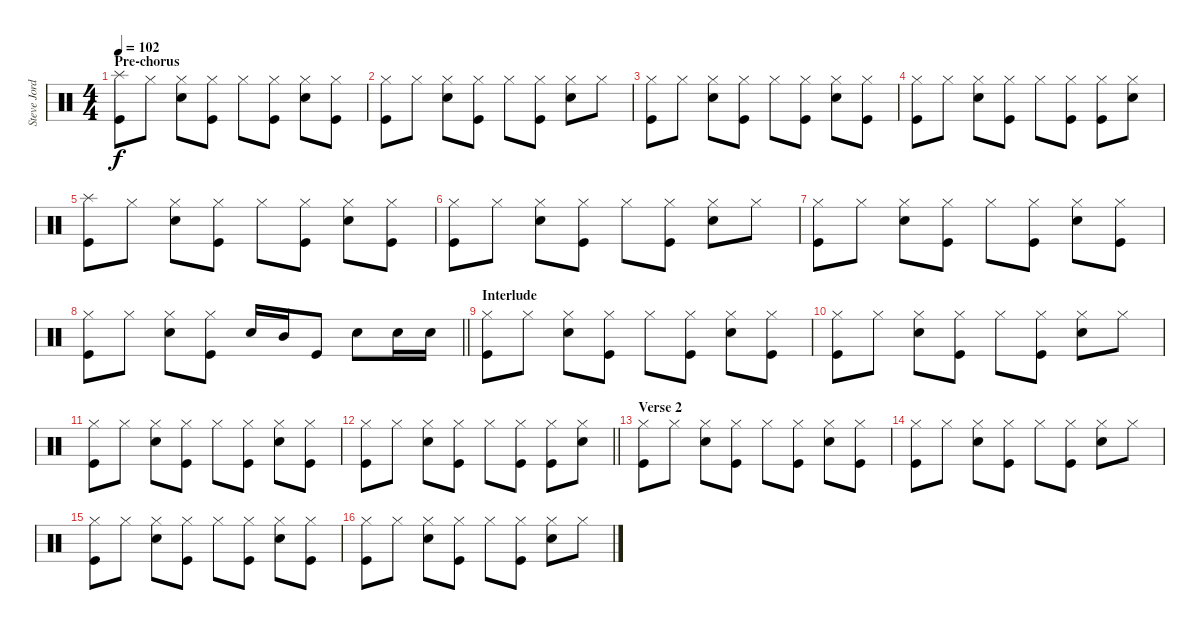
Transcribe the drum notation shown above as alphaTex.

\track ("Steve Jordan (Drums)" "Steve Jord") {instrument percussion}
\staff {score}
\articulation defaults
\ts (4 4)
\section ("" "Pre-chorus")
\tempo 102
\clef neutral
\ks c
("Splash (hit)" "Kick (hit)").8{dy f} "Hi-Hat (closed)".8 ("Hi-Hat (closed)" "Snare (hit) 2").8 ("Hi-Hat (closed)" "Kick (hit)").8 "Hi-Hat (closed)".8 ("Hi-Hat (closed)" "Kick (hit)").8 ("Hi-Hat (closed)" "Snare (hit) 2").8 ("Hi-Hat (closed)" "Kick (hit)").8 |
("Hi-Hat (closed)" "Kick (hit)").8 "Hi-Hat (closed)".8 ("Hi-Hat (closed)" "Snare (hit) 2").8 ("Hi-Hat (closed)" "Kick (hit)").8 "Hi-Hat (closed)".8 ("Hi-Hat (closed)" "Kick (hit)").8 ("Hi-Hat (closed)" "Snare (hit) 2").8 "Hi-Hat (closed)".8 |
("Hi-Hat (closed)" "Kick (hit)").8 "Hi-Hat (closed)".8 ("Hi-Hat (closed)" "Snare (hit) 2").8 ("Hi-Hat (closed)" "Kick (hit)").8 "Hi-Hat (closed)".8 ("Hi-Hat (closed)" "Kick (hit)").8 ("Hi-Hat (closed)" "Snare (hit) 2").8 ("Hi-Hat (closed)" "Kick (hit)").8 |
("Hi-Hat (closed)" "Kick (hit)").8 "Hi-Hat (closed)".8 ("Hi-Hat (closed)" "Snare (hit) 2").8 ("Hi-Hat (closed)" "Kick (hit)").8 "Hi-Hat (closed)".8 ("Hi-Hat (closed)" "Kick (hit)").8 ("Hi-Hat (closed)" "Kick (hit)").8 ("Hi-Hat (closed)" "Snare (hit) 2").8 |
("Splash (hit)" "Kick (hit)").8 "Hi-Hat (closed)".8 ("Hi-Hat (closed)" "Snare (hit) 2").8 ("Hi-Hat (closed)" "Kick (hit)").8 "Hi-Hat (closed)".8 ("Hi-Hat (closed)" "Kick (hit)").8 ("Hi-Hat (closed)" "Snare (hit) 2").8 ("Hi-Hat (closed)" "Kick (hit)").8 |
("Hi-Hat (closed)" "Kick (hit)").8 "Hi-Hat (closed)".8 ("Hi-Hat (closed)" "Snare (hit) 2").8 ("Hi-Hat (closed)" "Kick (hit)").8 "Hi-Hat (closed)".8 ("Hi-Hat (closed)" "Kick (hit)").8 ("Hi-Hat (closed)" "Snare (hit) 2").8 "Hi-Hat (closed)".8 |
("Hi-Hat (closed)" "Kick (hit)").8 "Hi-Hat (closed)".8 ("Hi-Hat (closed)" "Snare (hit) 2").8 ("Hi-Hat (closed)" "Kick (hit)").8 "Hi-Hat (closed)".8 ("Hi-Hat (closed)" "Kick (hit)").8 ("Hi-Hat (closed)" "Snare (hit) 2").8 ("Hi-Hat (closed)" "Kick (hit)").8 |
\barLineRight lightlight
("Hi-Hat (closed)" "Kick (hit)").8 "Hi-Hat (closed)".8 ("Hi-Hat (closed)" "Snare (hit) 2").8 ("Hi-Hat (closed)" "Kick (hit)").8 "Snare (hit) 2".16 "Mid Tom (hit)".16 "Kick (hit)".8 "Snare (hit) 2".8 "Snare (hit) 2".16 "Snare (hit) 2".16 |
\section ("" "Interlude")
("Hi-Hat (closed)" "Kick (hit)").8 "Hi-Hat (closed)".8 ("Hi-Hat (closed)" "Snare (hit) 2").8 ("Hi-Hat (closed)" "Kick (hit)").8 "Hi-Hat (closed)".8 ("Hi-Hat (closed)" "Kick (hit)").8 ("Hi-Hat (closed)" "Snare (hit) 2").8 ("Hi-Hat (closed)" "Kick (hit)").8 |
("Hi-Hat (closed)" "Kick (hit)").8 "Hi-Hat (closed)".8 ("Hi-Hat (closed)" "Snare (hit) 2").8 ("Hi-Hat (closed)" "Kick (hit)").8 "Hi-Hat (closed)".8 ("Hi-Hat (closed)" "Kick (hit)").8 ("Hi-Hat (closed)" "Snare (hit) 2").8 "Hi-Hat (closed)".8 |
("Hi-Hat (closed)" "Kick (hit)").8 "Hi-Hat (closed)".8 ("Hi-Hat (closed)" "Snare (hit) 2").8 ("Hi-Hat (closed)" "Kick (hit)").8 "Hi-Hat (closed)".8 ("Hi-Hat (closed)" "Kick (hit)").8 ("Hi-Hat (closed)" "Snare (hit) 2").8 ("Hi-Hat (closed)" "Kick (hit)").8 |
\barLineRight lightlight
("Hi-Hat (closed)" "Kick (hit)").8 "Hi-Hat (closed)".8 ("Hi-Hat (closed)" "Snare (hit) 2").8 ("Hi-Hat (closed)" "Kick (hit)").8 "Hi-Hat (closed)".8 ("Hi-Hat (closed)" "Kick (hit)").8 ("Hi-Hat (closed)" "Kick (hit)").8 ("Hi-Hat (closed)" "Snare (hit) 2").8 |
\section ("" "Verse 2")
("Hi-Hat (closed)" "Kick (hit)").8 "Hi-Hat (closed)".8 ("Hi-Hat (closed)" "Snare (hit) 2").8 ("Hi-Hat (closed)" "Kick (hit)").8 "Hi-Hat (closed)".8 ("Hi-Hat (closed)" "Kick (hit)").8 ("Hi-Hat (closed)" "Snare (hit) 2").8 ("Hi-Hat (closed)" "Kick (hit)").8 |
("Hi-Hat (closed)" "Kick (hit)").8 "Hi-Hat (closed)".8 ("Hi-Hat (closed)" "Snare (hit) 2").8 ("Hi-Hat (closed)" "Kick (hit)").8 "Hi-Hat (closed)".8 ("Hi-Hat (closed)" "Kick (hit)").8 ("Hi-Hat (closed)" "Snare (hit) 2").8 "Hi-Hat (closed)".8 |
("Hi-Hat (closed)" "Kick (hit)").8 "Hi-Hat (closed)".8 ("Hi-Hat (closed)" "Snare (hit) 2").8 ("Hi-Hat (closed)" "Kick (hit)").8 "Hi-Hat (closed)".8 ("Hi-Hat (closed)" "Kick (hit)").8 ("Hi-Hat (closed)" "Snare (hit) 2").8 ("Hi-Hat (closed)" "Kick (hit)").8 |
("Hi-Hat (closed)" "Kick (hit)").8 "Hi-Hat (closed)".8 ("Hi-Hat (closed)" "Snare (hit) 2").8 ("Hi-Hat (closed)" "Kick (hit)").8 "Hi-Hat (closed)".8 ("Hi-Hat (closed)" "Kick (hit)").8 ("Hi-Hat (closed)" "Snare (hit) 2").8 "Hi-Hat (closed)".8
